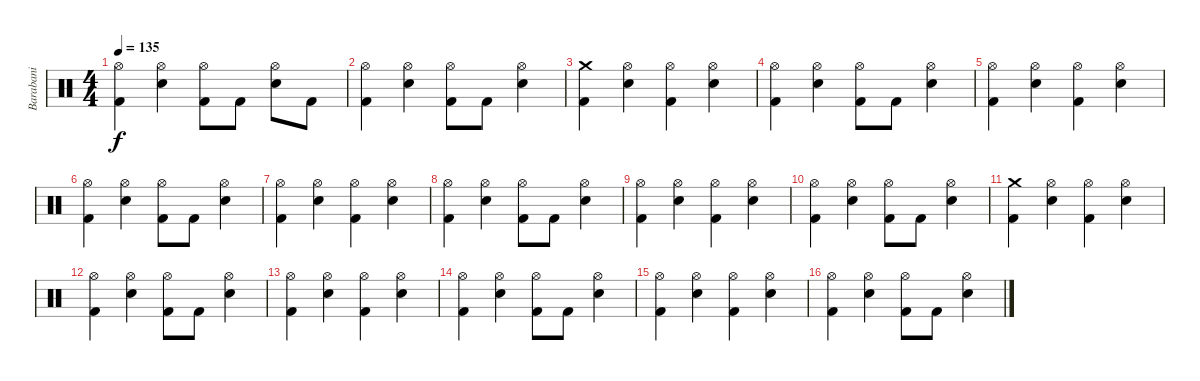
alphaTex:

\track ("Barabani" "Barabani") {instrument percussion}
\staff {score}
\articulation defaults
\ts (4 4)
\tempo 135
\clef neutral
\ks c
("Hi-Hat (open)" "Kick (hit) 2").4{dy f} ("Hi-Hat (open)" "Snare (hit) 2").4 ("Hi-Hat (open)" "Kick (hit) 2").8 "Kick (hit) 2".8 ("Hi-Hat (open)" "Snare (hit) 2").8 "Kick (hit) 2".8 |
("Hi-Hat (open)" "Kick (hit) 2").4 ("Hi-Hat (open)" "Snare (hit) 2").4 ("Hi-Hat (open)" "Kick (hit) 2").8 "Kick (hit) 2".8 ("Hi-Hat (open)" "Snare (hit) 2").4 |
("Crash medium (hit)" "Kick (hit) 2").4 ("Hi-Hat (open)" "Snare (hit) 2").4 ("Hi-Hat (open)" "Kick (hit) 2").4 ("Hi-Hat (open)" "Snare (hit) 2").4 |
("Hi-Hat (open)" "Kick (hit) 2").4 ("Hi-Hat (open)" "Snare (hit) 2").4 ("Hi-Hat (open)" "Kick (hit) 2").8 "Kick (hit) 2".8 ("Hi-Hat (open)" "Snare (hit) 2").4 |
("Hi-Hat (open)" "Kick (hit) 2").4 ("Hi-Hat (open)" "Snare (hit) 2").4 ("Hi-Hat (open)" "Kick (hit) 2").4 ("Hi-Hat (open)" "Snare (hit) 2").4 |
("Hi-Hat (open)" "Kick (hit) 2").4 ("Hi-Hat (open)" "Snare (hit) 2").4 ("Hi-Hat (open)" "Kick (hit) 2").8 "Kick (hit) 2".8 ("Hi-Hat (open)" "Snare (hit) 2").4 |
("Hi-Hat (open)" "Kick (hit) 2").4 ("Hi-Hat (open)" "Snare (hit) 2").4 ("Hi-Hat (open)" "Kick (hit) 2").4 ("Hi-Hat (open)" "Snare (hit) 2").4 |
("Hi-Hat (open)" "Kick (hit) 2").4 ("Hi-Hat (open)" "Snare (hit) 2").4 ("Hi-Hat (open)" "Kick (hit) 2").8 "Kick (hit) 2".8 ("Hi-Hat (open)" "Snare (hit) 2").4 |
("Hi-Hat (open)" "Kick (hit) 2").4 ("Hi-Hat (open)" "Snare (hit) 2").4 ("Hi-Hat (open)" "Kick (hit) 2").4 ("Hi-Hat (open)" "Snare (hit) 2").4 |
("Hi-Hat (open)" "Kick (hit) 2").4 ("Hi-Hat (open)" "Snare (hit) 2").4 ("Hi-Hat (open)" "Kick (hit) 2").8 "Kick (hit) 2".8 ("Hi-Hat (open)" "Snare (hit) 2").4 |
("Crash medium (hit)" "Kick (hit) 2").4 ("Hi-Hat (open)" "Snare (hit) 2").4 ("Hi-Hat (open)" "Kick (hit) 2").4 ("Hi-Hat (open)" "Snare (hit) 2").4 |
("Hi-Hat (open)" "Kick (hit) 2").4 ("Hi-Hat (open)" "Snare (hit) 2").4 ("Hi-Hat (open)" "Kick (hit) 2").8 "Kick (hit) 2".8 ("Hi-Hat (open)" "Snare (hit) 2").4 |
("Hi-Hat (open)" "Kick (hit) 2").4 ("Hi-Hat (open)" "Snare (hit) 2").4 ("Hi-Hat (open)" "Kick (hit) 2").4 ("Hi-Hat (open)" "Snare (hit) 2").4 |
("Hi-Hat (open)" "Kick (hit) 2").4 ("Hi-Hat (open)" "Snare (hit) 2").4 ("Hi-Hat (open)" "Kick (hit) 2").8 "Kick (hit) 2".8 ("Hi-Hat (open)" "Snare (hit) 2").4 |
("Hi-Hat (open)" "Kick (hit) 2").4 ("Hi-Hat (open)" "Snare (hit) 2").4 ("Hi-Hat (open)" "Kick (hit) 2").4 ("Hi-Hat (open)" "Snare (hit) 2").4 |
("Hi-Hat (open)" "Kick (hit) 2").4 ("Hi-Hat (open)" "Snare (hit) 2").4 ("Hi-Hat (open)" "Kick (hit) 2").8 "Kick (hit) 2".8 ("Hi-Hat (open)" "Snare (hit) 2").4
